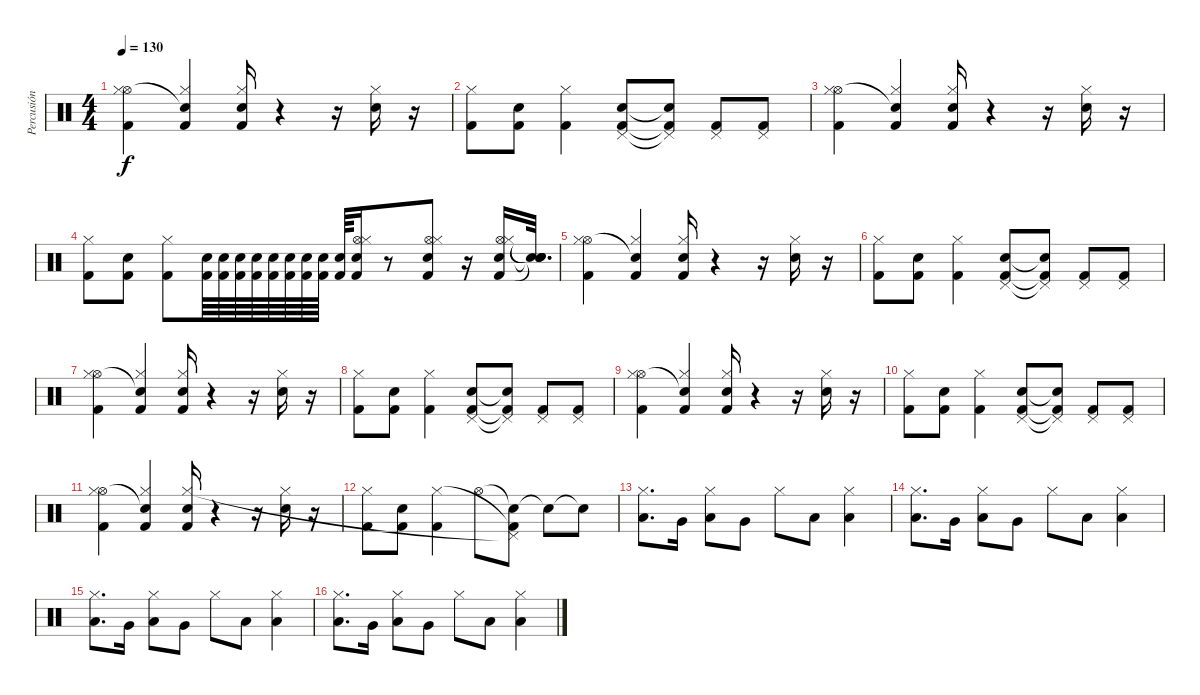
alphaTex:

\track ("Percusión" "Percusión") {instrument percussion}
\staff {score}
\articulation defaults
\ts (4 4)
\tempo 130
\clef neutral
\ks c
("Kick (hit) 2" "Hi-Hat (open)" "Hi-Hat (closed)").4{dy f} ("Kick (hit) 2" "Snare (hit)"{t} "Hi-Hat (closed)").4 ("Electric Snare (hit)" "Kick (hit) 2" "Hi-Hat (closed)").16 r.4 r.16 ("Electric Snare (hit)" "Hi-Hat (closed)").16 r.16 |
("Kick (hit) 2" "Hi-Hat (closed)").8 ("Kick (hit) 2" "Electric Snare (hit)").8 ("Kick (hit) 2" "Hi-Hat (closed)").4 ("Electric Snare (hit)" "Kick (hit) 2" "Pedal Hi-Hat (hit)").8 ("Snare (hit)"{t} "Kick (hit) 2"{t} "Pedal Hi-Hat (hit)"{t}).8 ("Kick (hit) 2" "Pedal Hi-Hat (hit)").8 ("Kick (hit) 2" "Pedal Hi-Hat (hit)").8 |
("Kick (hit) 2" "Hi-Hat (open)" "Hi-Hat (closed)").4 ("Kick (hit) 2" "Snare (hit)"{t} "Hi-Hat (closed)").4 ("Electric Snare (hit)" "Kick (hit) 2" "Hi-Hat (closed)").16 r.4 r.16 ("Electric Snare (hit)" "Hi-Hat (closed)").16 r.16 |
("Kick (hit) 2" "Hi-Hat (closed)").8 ("Kick (hit) 2" "Electric Snare (hit)").8 ("Kick (hit) 2" "Hi-Hat (closed)").8 ("Kick (hit) 2" "Electric Snare (hit)").64 ("Kick (hit) 2" "Electric Snare (hit)").64 ("Kick (hit) 2" "Electric Snare (hit)").64 ("Kick (hit) 2" "Electric Snare (hit)").64 ("Kick (hit) 2" "Electric Snare (hit)").64 ("Kick (hit) 2" "Electric Snare (hit)").64 ("Kick (hit) 2" "Electric Snare (hit)").64 ("Kick (hit) 2" "Electric Snare (hit)").64 ("Kick (hit) 2" "Electric Snare (hit)").64 ("Hi-Hat (open)" "Hi-Hat (closed)" "Kick (hit) 2" "Electric Snare (hit)").16 r.8 ("Hi-Hat (open)" "Hi-Hat (closed)" "Kick (hit) 2" "Electric Snare (hit)").8 r.16 ("Hi-Hat (open)" "Hi-Hat (closed)" "Kick (hit) 2" "Electric Snare (hit)").16 ("Snare (hit)"{t} "Snare (hit)"{t} "Snare (hit)"{t} "Snare (hit)"{t}).32{d} |
("Kick (hit) 2" "Hi-Hat (open)" "Hi-Hat (closed)").4 ("Kick (hit) 2" "Snare (hit)"{t} "Hi-Hat (closed)").4 ("Electric Snare (hit)" "Kick (hit) 2" "Hi-Hat (closed)").16 r.4 r.16 ("Electric Snare (hit)" "Hi-Hat (closed)").16 r.16 |
("Kick (hit) 2" "Hi-Hat (closed)").8 ("Kick (hit) 2" "Electric Snare (hit)").8 ("Kick (hit) 2" "Hi-Hat (closed)").4 ("Electric Snare (hit)" "Kick (hit) 2" "Pedal Hi-Hat (hit)").8 ("Snare (hit)"{t} "Kick (hit) 2"{t} "Pedal Hi-Hat (hit)"{t}).8 ("Kick (hit) 2" "Pedal Hi-Hat (hit)").8 ("Kick (hit) 2" "Pedal Hi-Hat (hit)").8 |
("Kick (hit) 2" "Hi-Hat (open)" "Hi-Hat (closed)").4 ("Kick (hit) 2" "Snare (hit)"{t} "Hi-Hat (closed)").4 ("Electric Snare (hit)" "Kick (hit) 2" "Hi-Hat (closed)").16 r.4 r.16 ("Electric Snare (hit)" "Hi-Hat (closed)").16 r.16 |
("Kick (hit) 2" "Hi-Hat (closed)").8 ("Kick (hit) 2" "Electric Snare (hit)").8 ("Kick (hit) 2" "Hi-Hat (closed)").4 ("Electric Snare (hit)" "Kick (hit) 2" "Pedal Hi-Hat (hit)").8 ("Snare (hit)"{t} "Kick (hit) 2"{t} "Pedal Hi-Hat (hit)"{t}).8 ("Kick (hit) 2" "Pedal Hi-Hat (hit)").8 ("Kick (hit) 2" "Pedal Hi-Hat (hit)").8 |
("Kick (hit) 2" "Hi-Hat (open)" "Hi-Hat (closed)").4 ("Kick (hit) 2" "Snare (hit)"{t} "Hi-Hat (closed)").4 ("Electric Snare (hit)" "Kick (hit) 2" "Hi-Hat (closed)").16 r.4 r.16 ("Electric Snare (hit)" "Hi-Hat (closed)").16 r.16 |
("Kick (hit) 2" "Hi-Hat (closed)").8 ("Kick (hit) 2" "Electric Snare (hit)").8 ("Kick (hit) 2" "Hi-Hat (closed)").4 ("Electric Snare (hit)" "Kick (hit) 2" "Pedal Hi-Hat (hit)").8 ("Snare (hit)"{t} "Kick (hit) 2"{t} "Pedal Hi-Hat (hit)"{t}).8 ("Kick (hit) 2" "Pedal Hi-Hat (hit)").8 ("Kick (hit) 2" "Pedal Hi-Hat (hit)").8 |
("Kick (hit) 2" "Hi-Hat (open)" "Hi-Hat (closed)").4 ("Kick (hit) 2" "Snare (hit)"{t} "Hi-Hat (closed)").4 ("Electric Snare (hit)" "Kick (hit) 2" "Hi-Hat (closed)").16 r.4 r.16 ("Electric Snare (hit)" "Hi-Hat (closed)").16 r.16 |
("Kick (hit) 2" "Hi-Hat (closed)").8 ("Kick (hit) 2" "Electric Snare (hit)").8 ("Kick (hit) 2" "Hi-Hat (closed)").4 "Hi-Hat (open)".8 ("Snare (hit)"{t} "Kick (hit) 2"{t} "Pedal Hi-Hat (hit)"{t}).8 "Snare (hit)"{t}.8 "Snare (hit)"{t}.8 |
("Low Floor Tom (hit)" "Hi-Hat (closed)").8{d} "Very Low Tom (hit)".16 ("Low Floor Tom (hit)" "Hi-Hat (closed)").8 "Very Low Tom (hit)".8 "Hi-Hat (closed)".8 "Low Floor Tom (hit)".8 ("Low Floor Tom (hit)" "Hi-Hat (closed)").4 |
("Low Floor Tom (hit)" "Hi-Hat (closed)").8{d} "Very Low Tom (hit)".16 ("Low Floor Tom (hit)" "Hi-Hat (closed)").8 "Very Low Tom (hit)".8 "Hi-Hat (closed)".8 "Low Floor Tom (hit)".8 ("Low Floor Tom (hit)" "Hi-Hat (closed)").4 |
("Low Floor Tom (hit)" "Hi-Hat (closed)").8{d} "Very Low Tom (hit)".16 ("Low Floor Tom (hit)" "Hi-Hat (closed)").8 "Very Low Tom (hit)".8 "Hi-Hat (closed)".8 "Low Floor Tom (hit)".8 ("Low Floor Tom (hit)" "Hi-Hat (closed)").4 |
("Low Floor Tom (hit)" "Hi-Hat (closed)").8{d} "Very Low Tom (hit)".16 ("Low Floor Tom (hit)" "Hi-Hat (closed)").8 "Very Low Tom (hit)".8 "Hi-Hat (closed)".8 "Low Floor Tom (hit)".8 ("Low Floor Tom (hit)" "Hi-Hat (closed)").4
